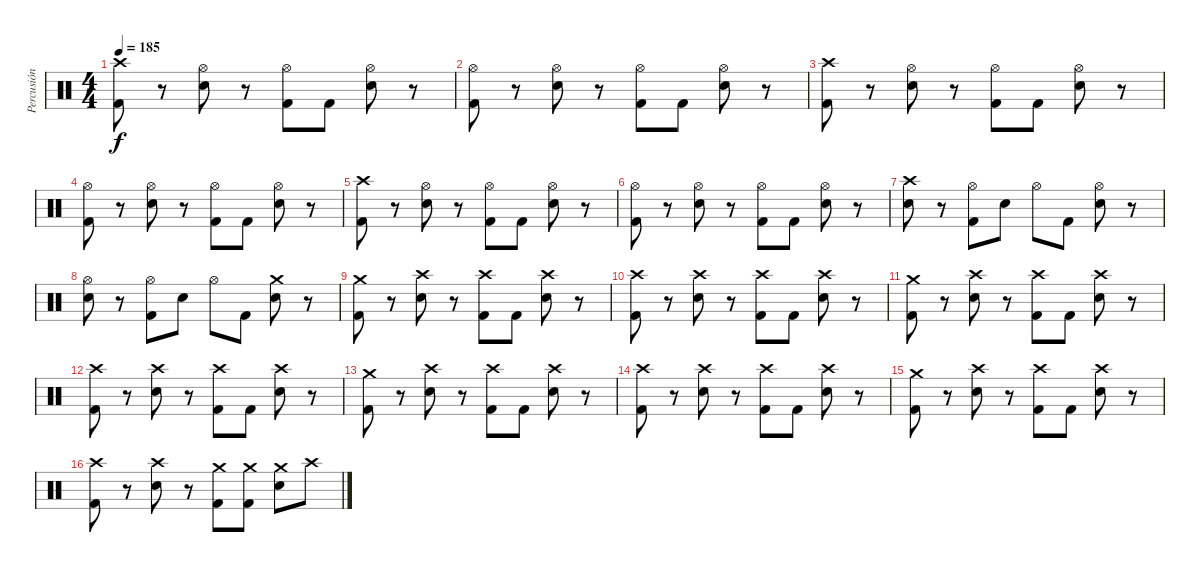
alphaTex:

\track ("Percusión" "Percusión") {instrument percussion}
\staff {score}
\articulation defaults
\ts (4 4)
\tempo 185
\clef neutral
\ks c
("Crash high (hit)" "Kick (hit) 2").8{dy f} r.8 ("Hi-Hat (open)" "Electric Snare (hit)").8 r.8 ("Hi-Hat (open)" "Kick (hit) 2").8 "Kick (hit) 2".8 ("Hi-Hat (open)" "Electric Snare (hit)").8 r.8 |
("Hi-Hat (open)" "Kick (hit) 2").8 r.8 ("Hi-Hat (open)" "Electric Snare (hit)").8 r.8 ("Hi-Hat (open)" "Kick (hit) 2").8 "Kick (hit) 2".8 ("Hi-Hat (open)" "Electric Snare (hit)").8 r.8 |
("Crash high (hit)" "Kick (hit) 2").8 r.8 ("Hi-Hat (open)" "Electric Snare (hit)").8 r.8 ("Hi-Hat (open)" "Kick (hit) 2").8 "Kick (hit) 2".8 ("Hi-Hat (open)" "Electric Snare (hit)").8 r.8 |
("Hi-Hat (open)" "Kick (hit) 2").8 r.8 ("Hi-Hat (open)" "Electric Snare (hit)").8 r.8 ("Hi-Hat (open)" "Kick (hit) 2").8 "Kick (hit) 2".8 ("Hi-Hat (open)" "Electric Snare (hit)").8 r.8 |
("Crash high (hit)" "Kick (hit) 2").8 r.8 ("Hi-Hat (open)" "Electric Snare (hit)").8 r.8 ("Hi-Hat (open)" "Kick (hit) 2").8 "Kick (hit) 2".8 ("Hi-Hat (open)" "Electric Snare (hit)").8 r.8 |
("Hi-Hat (open)" "Kick (hit) 2").8 r.8 ("Hi-Hat (open)" "Electric Snare (hit)").8 r.8 ("Hi-Hat (open)" "Kick (hit) 2").8 "Kick (hit) 2".8 ("Hi-Hat (open)" "Electric Snare (hit)").8 r.8 |
("Crash high (hit)" "Electric Snare (hit)").8 r.8 ("Hi-Hat (open)" "Kick (hit) 2").8 "Electric Snare (hit)".8 "Hi-Hat (open)".8 "Kick (hit) 2".8 ("Hi-Hat (open)" "Electric Snare (hit)").8 r.8 |
("Hi-Hat (open)" "Electric Snare (hit)").8 r.8 ("Hi-Hat (open)" "Kick (hit) 2").8 "Electric Snare (hit)".8 "Hi-Hat (open)".8 "Kick (hit) 2".8 ("Crash medium (hit)" "Electric Snare (hit)").8 r.8 |
("Crash medium (hit)" "Kick (hit) 2").8 r.8 ("Crash high (hit)" "Electric Snare (hit)").8 r.8 ("Crash high (hit)" "Kick (hit) 2").8 "Kick (hit) 2".8 ("Crash high (hit)" "Electric Snare (hit)").8 r.8 |
("Crash high (hit)" "Kick (hit) 2").8 r.8 ("Crash high (hit)" "Electric Snare (hit)").8 r.8 ("Crash high (hit)" "Kick (hit) 2").8 "Kick (hit) 2".8 ("Crash high (hit)" "Electric Snare (hit)").8 r.8 |
("Crash medium (hit)" "Kick (hit) 2").8 r.8 ("Crash high (hit)" "Electric Snare (hit)").8 r.8 ("Crash high (hit)" "Kick (hit) 2").8 "Kick (hit) 2".8 ("Crash high (hit)" "Electric Snare (hit)").8 r.8 |
("Crash high (hit)" "Kick (hit) 2").8 r.8 ("Crash high (hit)" "Electric Snare (hit)").8 r.8 ("Crash high (hit)" "Kick (hit) 2").8 "Kick (hit) 2".8 ("Crash high (hit)" "Electric Snare (hit)").8 r.8 |
("Crash medium (hit)" "Kick (hit) 2").8 r.8 ("Crash high (hit)" "Electric Snare (hit)").8 r.8 ("Crash high (hit)" "Kick (hit) 2").8 "Kick (hit) 2".8 ("Crash high (hit)" "Electric Snare (hit)").8 r.8 |
("Crash high (hit)" "Kick (hit) 2").8 r.8 ("Crash high (hit)" "Electric Snare (hit)").8 r.8 ("Crash high (hit)" "Kick (hit) 2").8 "Kick (hit) 2".8 ("Crash high (hit)" "Electric Snare (hit)").8 r.8 |
("Crash medium (hit)" "Kick (hit) 2").8 r.8 ("Crash high (hit)" "Electric Snare (hit)").8 r.8 ("Crash high (hit)" "Kick (hit) 2").8 "Kick (hit) 2".8 ("Crash high (hit)" "Electric Snare (hit)").8 r.8 |
("Crash high (hit)" "Kick (hit) 2").8 r.8 ("Crash high (hit)" "Electric Snare (hit)").8 r.8 ("Crash medium (hit)" "Kick (hit) 2").8 ("Crash medium (hit)" "Kick (hit) 2").8 ("Crash medium (hit)" "Electric Snare (hit)").8 "Crash high (hit)".8
